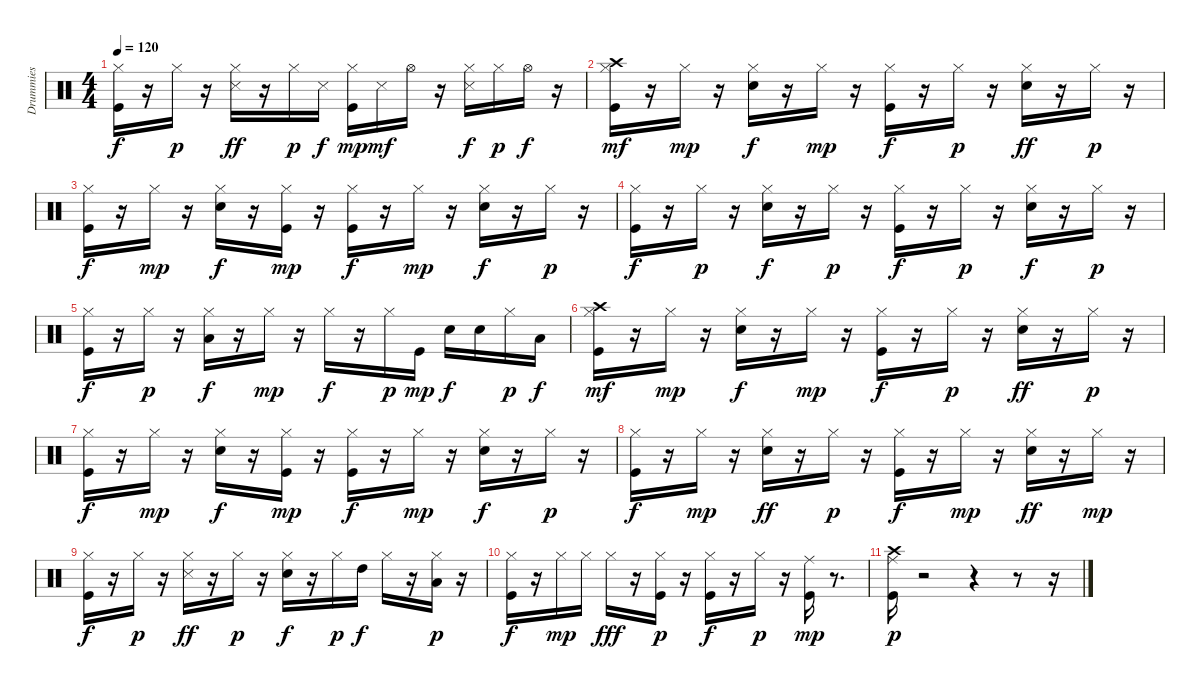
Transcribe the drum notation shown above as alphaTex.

\track ("Drummies" "Drummies") {instrument percussion}
\staff {score}
\articulation defaults
\ts (4 4)
\tempo 120
\clef neutral
\ks c
("Kick (hit)" "Hi-Hat (closed)").16{dy f} r.16 "Hi-Hat (closed)".16{dy p} r.16 ("Hi-Hat (closed)" "Snare (side stick) 3").16{dy ff} r.16 "Hi-Hat (closed)".16{dy p} "Snare (side stick) 3".16{dy f} ("Kick (hit)" "Hi-Hat (closed)").16{dy mp} "Snare (side stick) 3".16{dy mf} "Hi-Hat (open)".16 r.16 ("Hi-Hat (closed)" "Snare (side stick) 3").16{dy f} "Hi-Hat (closed)".16{dy p} "Hi-Hat (open)".16{dy f} r.16 |
("Kick (hit)" "Hi-Hat (closed)" "Crash high (hit)").16{dy mf} r.16 "Hi-Hat (closed)".16{dy mp} r.16 ("Snare (hit) 2" "Hi-Hat (closed)").16{dy f} r.16 "Hi-Hat (closed)".16{dy mp} r.16 ("Kick (hit)" "Hi-Hat (closed)").16{dy f} r.16 "Hi-Hat (closed)".16{dy p} r.16 ("Snare (hit) 2" "Hi-Hat (closed)").16{dy ff} r.16 "Hi-Hat (closed)".16{dy p} r.16 |
("Kick (hit)" "Hi-Hat (closed)").16{dy f} r.16 "Hi-Hat (closed)".16{dy mp} r.16 ("Snare (hit) 2" "Hi-Hat (closed)").16{dy f} r.16 ("Kick (hit)" "Hi-Hat (closed)").16{dy mp} r.16 ("Kick (hit)" "Hi-Hat (closed)").16{dy f} r.16 "Hi-Hat (closed)".16{dy mp} r.16 ("Snare (hit) 2" "Hi-Hat (closed)").16{dy f} r.16 "Hi-Hat (closed)".16{dy p} r.16 |
("Kick (hit)" "Hi-Hat (closed)").16{dy f} r.16 "Hi-Hat (closed)".16{dy p} r.16 ("Snare (hit) 2" "Hi-Hat (closed)").16{dy f} r.16 "Hi-Hat (closed)".16{dy p} r.16 ("Kick (hit)" "Hi-Hat (closed)").16{dy f} r.16 "Hi-Hat (closed)".16{dy p} r.16 ("Snare (hit) 2" "Hi-Hat (closed)").16{dy f} r.16 "Hi-Hat (closed)".16{dy p} r.16 |
("Kick (hit)" "Hi-Hat (closed)").16{dy f} r.16 "Hi-Hat (closed)".16{dy p} r.16 ("Hi-Hat (closed)" "Low Tom (hit)").16{dy f} r.16 "Hi-Hat (closed)".16{dy mp} r.16 "Hi-Hat (closed)".16{dy f} r.16 "Hi-Hat (closed)".16{dy p} "Kick (hit)".16{dy mp} "Snare (hit) 2".16{dy f} "Snare (hit) 2".16 "Hi-Hat (closed)".16{dy p} "Low Tom (hit)".16{dy f} |
("Kick (hit)" "Hi-Hat (closed)" "Crash high (hit)").16{dy mf} r.16 "Hi-Hat (closed)".16{dy mp} r.16 ("Snare (hit) 2" "Hi-Hat (closed)").16{dy f} r.16 "Hi-Hat (closed)".16{dy mp} r.16 ("Kick (hit)" "Hi-Hat (closed)").16{dy f} r.16 "Hi-Hat (closed)".16{dy p} r.16 ("Snare (hit) 2" "Hi-Hat (closed)").16{dy ff} r.16 "Hi-Hat (closed)".16{dy p} r.16 |
("Kick (hit)" "Hi-Hat (closed)").16{dy f} r.16 "Hi-Hat (closed)".16{dy mp} r.16 ("Snare (hit) 2" "Hi-Hat (closed)").16{dy f} r.16 ("Kick (hit)" "Hi-Hat (closed)").16{dy mp} r.16 ("Kick (hit)" "Hi-Hat (closed)").16{dy f} r.16 "Hi-Hat (closed)".16{dy mp} r.16 ("Snare (hit) 2" "Hi-Hat (closed)").16{dy f} r.16 "Hi-Hat (closed)".16{dy p} r.16 |
("Kick (hit)" "Hi-Hat (closed)").16{dy f} r.16 "Hi-Hat (closed)".16{dy mp} r.16 ("Snare (hit) 2" "Hi-Hat (closed)").16{dy ff} r.16 "Hi-Hat (closed)".16{dy p} r.16 ("Kick (hit)" "Hi-Hat (closed)").16{dy f} r.16 "Hi-Hat (closed)".16{dy mp} r.16 ("Snare (hit) 2" "Hi-Hat (closed)").16{dy ff} r.16 "Hi-Hat (closed)".16{dy mp} r.16 |
("Kick (hit)" "Hi-Hat (closed)").16{dy f} r.16 "Hi-Hat (closed)".16{dy p} r.16 ("Hi-Hat (closed)" "Snare (side stick) 3").16{dy ff} r.16 "Hi-Hat (closed)".16{dy p} r.16 ("Snare (hit) 2" "Hi-Hat (closed)").16{dy f} r.16 "Hi-Hat (closed)".16{dy p} "High Tom (hit)".16{dy f} "Hi-Hat (closed)".16 r.16 ("Hi-Hat (closed)" "Low Tom (hit)").16{dy p} r.16 |
("Kick (hit)" "Hi-Hat (closed)").16{dy f} r.16 "Hi-Hat (closed)".16{dy mp} "Hi-Hat (closed)".16 "Hi-Hat (closed)".16{dy fff} r.16 ("Kick (hit)" "Hi-Hat (closed)").16{dy p} r.16 ("Kick (hit)" "Hi-Hat (closed)").16{dy f} r.16 "Hi-Hat (closed)".16{dy p} r.16 ("Kick (hit)" "Ride (middle)").16{dy mp} r.8{d} |
("Kick (hit)" "Ride (middle)" "Crash high (hit)").16{dy p} r.2 r.4 r.8 r.16
